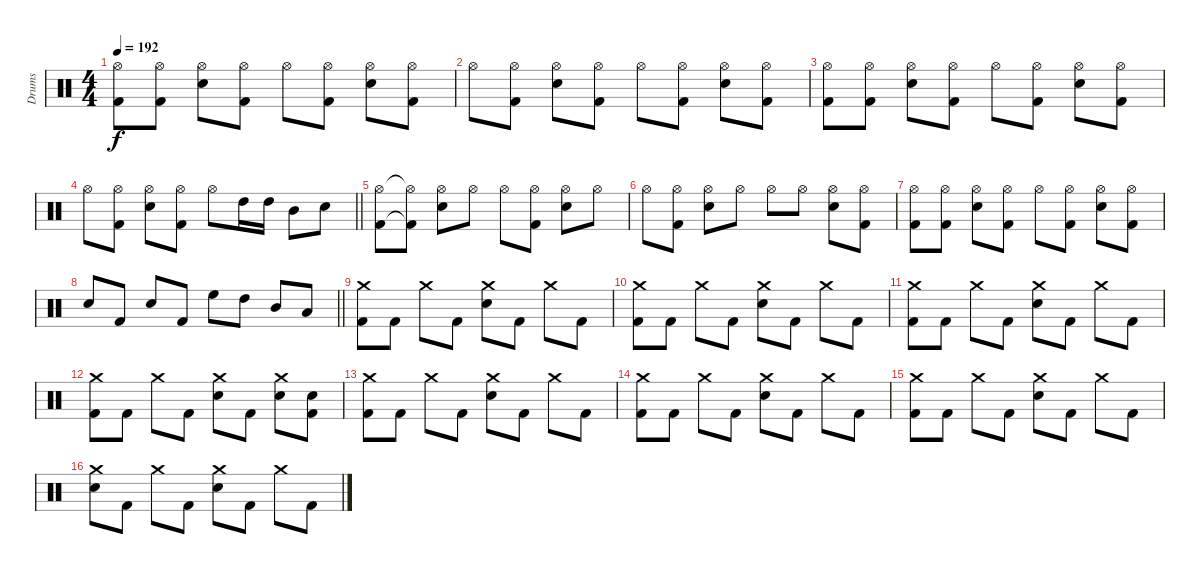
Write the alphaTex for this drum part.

\track ("Drums" "Drums") {instrument percussion}
\staff {score}
\articulation defaults
\ts (4 4)
\tempo 192
\clef neutral
\ks c
("Hi-Hat (open)" "Kick (hit) 2").8{dy f} ("Hi-Hat (open)" "Kick (hit) 2").8 ("Hi-Hat (open)" "Electric Snare (hit)").8 ("Hi-Hat (open)" "Kick (hit) 2").8 "Hi-Hat (open)".8 ("Hi-Hat (open)" "Kick (hit) 2").8 ("Hi-Hat (open)" "Electric Snare (hit)").8 ("Hi-Hat (open)" "Kick (hit) 2").8 |
"Hi-Hat (open)".8 ("Hi-Hat (open)" "Kick (hit) 2").8 ("Hi-Hat (open)" "Electric Snare (hit)").8 ("Hi-Hat (open)" "Kick (hit) 2").8 "Hi-Hat (open)".8 ("Hi-Hat (open)" "Kick (hit) 2").8 ("Hi-Hat (open)" "Electric Snare (hit)").8 ("Hi-Hat (open)" "Kick (hit) 2").8 |
("Hi-Hat (open)" "Kick (hit) 2").8 ("Hi-Hat (open)" "Kick (hit) 2").8 ("Hi-Hat (open)" "Electric Snare (hit)").8 ("Hi-Hat (open)" "Kick (hit) 2").8 "Hi-Hat (open)".8 ("Hi-Hat (open)" "Kick (hit) 2").8 ("Hi-Hat (open)" "Electric Snare (hit)").8 ("Hi-Hat (open)" "Kick (hit) 2").8 |
\barLineRight lightlight "Hi-Hat (open)".8
("Hi-Hat (open)" "Kick (hit) 2").8 ("Hi-Hat (open)" "Electric Snare (hit)").8 ("Hi-Hat (open)" "Kick (hit) 2").8 "Hi-Hat (open)".8 "High Tom (hit)".16 "High Tom (hit)".16 "Mid Tom (hit)".8 "Electric Snare (hit)".8 |
("Hi-Hat (open)" "Kick (hit) 2").8 ("Hi-Hat (open)"{t} "Kick (hit) 2"{t}).8 ("Hi-Hat (open)" "Electric Snare (hit)").8 "Hi-Hat (open)".8 "Hi-Hat (open)".8 ("Hi-Hat (open)" "Kick (hit) 2").8 ("Hi-Hat (open)" "Electric Snare (hit)").8 "Hi-Hat (open)".8 |
"Hi-Hat (open)".8 ("Hi-Hat (open)" "Kick (hit) 2").8 ("Hi-Hat (open)" "Electric Snare (hit)").8 "Hi-Hat (open)".8 "Hi-Hat (open)".8 "Hi-Hat (open)".8 ("Hi-Hat (open)" "Electric Snare (hit)").8 ("Hi-Hat (open)" "Kick (hit) 2").8 |
("Hi-Hat (open)" "Kick (hit) 2").8 ("Hi-Hat (open)" "Kick (hit) 2").8 ("Hi-Hat (open)" "Electric Snare (hit)").8 ("Hi-Hat (open)" "Kick (hit) 2").8 "Hi-Hat (open)".8 ("Hi-Hat (open)" "Kick (hit) 2").8 ("Hi-Hat (open)" "Electric Snare (hit)").8 ("Hi-Hat (open)" "Kick (hit) 2").8 |
\barLineRight lightlight "Electric Snare (hit)".8 "Kick (hit) 2".8 "Electric Snare (hit)".8 "Kick (hit) 2".8 "High Floor Tom (hit)".8 "High Tom (hit)".8 "Mid Tom (hit)".8 "Low Tom (hit)".8
|
\section ("" "")
("Crash medium (hit)" "Kick (hit) 2").8 "Kick (hit) 2".8 "Crash medium (hit)".8 "Kick (hit) 2".8 ("Crash medium (hit)" "Electric Snare (hit)").8 "Kick (hit) 2".8 "Crash medium (hit)".8 "Kick (hit) 2".8 |
("Crash medium (hit)" "Kick (hit) 2").8 "Kick (hit) 2".8 "Crash medium (hit)".8 "Kick (hit) 2".8 ("Crash medium (hit)" "Electric Snare (hit)").8 "Kick (hit) 2".8 "Crash medium (hit)".8 "Kick (hit) 2".8 |
("Crash medium (hit)" "Kick (hit) 2").8 "Kick (hit) 2".8 "Crash medium (hit)".8 "Kick (hit) 2".8 ("Crash medium (hit)" "Electric Snare (hit)").8 "Kick (hit) 2".8 "Crash medium (hit)".8 "Kick (hit) 2".8 |
("Crash medium (hit)" "Kick (hit) 2").8 "Kick (hit) 2".8 "Crash medium (hit)".8 "Kick (hit) 2".8 ("Crash medium (hit)" "Electric Snare (hit)").8 "Kick (hit) 2".8 ("Crash medium (hit)" "Electric Snare (hit)").8 ("Electric Snare (hit)" "Kick (hit) 2").8 |
("Crash medium (hit)" "Kick (hit) 2").8 "Kick (hit) 2".8 "Crash medium (hit)".8 "Kick (hit) 2".8 ("Crash medium (hit)" "Electric Snare (hit)").8 "Kick (hit) 2".8 "Crash medium (hit)".8 "Kick (hit) 2".8 |
("Crash medium (hit)" "Kick (hit) 2").8 "Kick (hit) 2".8 "Crash medium (hit)".8 "Kick (hit) 2".8 ("Crash medium (hit)" "Electric Snare (hit)").8 "Kick (hit) 2".8 "Crash medium (hit)".8 "Kick (hit) 2".8 |
("Crash medium (hit)" "Kick (hit) 2").8 "Kick (hit) 2".8 "Crash medium (hit)".8 "Kick (hit) 2".8 ("Crash medium (hit)" "Electric Snare (hit)").8 "Kick (hit) 2".8 "Crash medium (hit)".8 "Kick (hit) 2".8 |
("Crash medium (hit)" "Electric Snare (hit)").8 "Kick (hit) 2".8 "Crash medium (hit)".8 "Kick (hit) 2".8 ("Crash medium (hit)" "Electric Snare (hit)").8 "Kick (hit) 2".8 "Crash medium (hit)".8 "Kick (hit) 2".8
